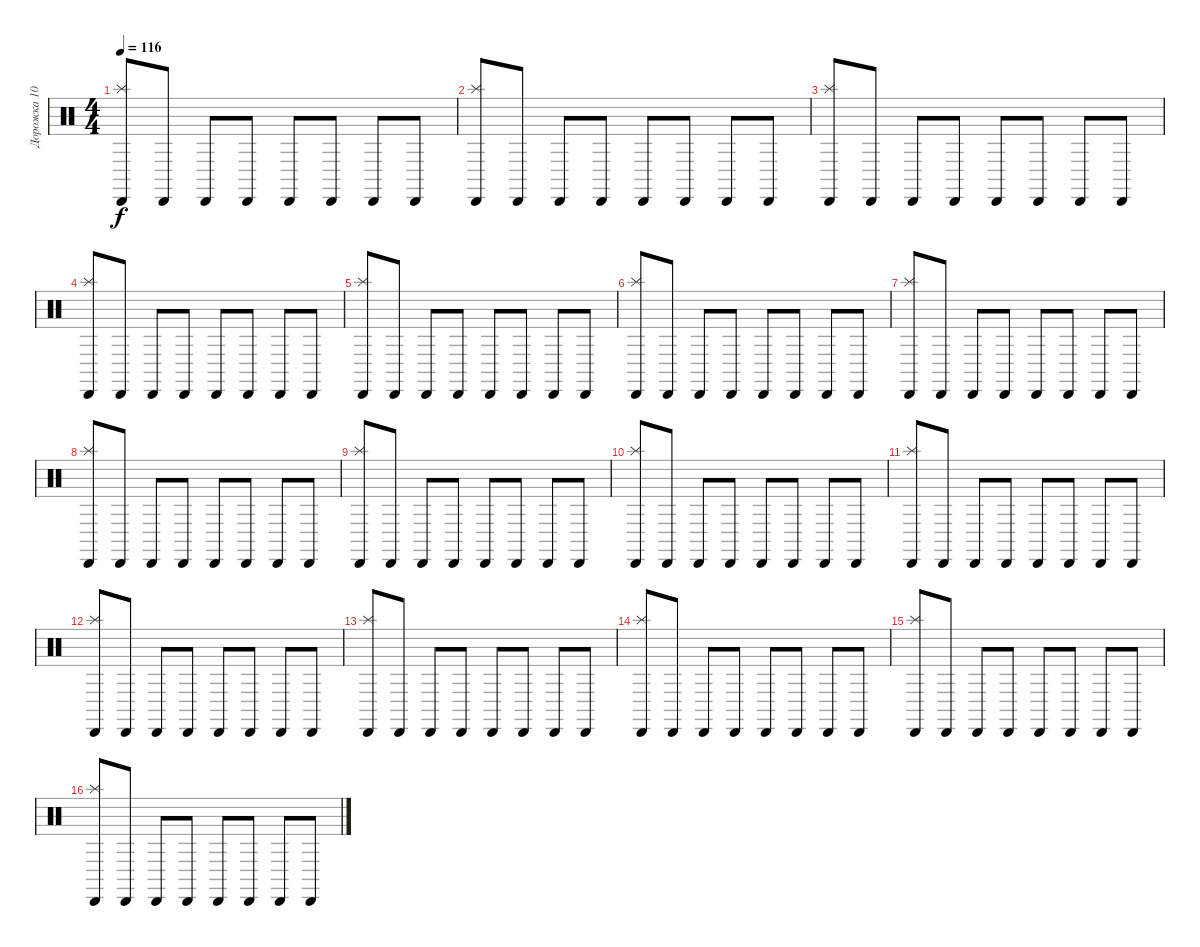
\track ("Дорожка 10" "Дорожка 10") {instrument percussion}
\staff {score}
\articulation defaults
\ts (4 4)
\tempo 116
\clef neutral
\ks c
("Splash (hit)" "Cabasa (hit)").8{dy f} "Cabasa (hit)".8 "Cabasa (hit)".8 "Cabasa (hit)".8 "Cabasa (hit)".8 "Cabasa (hit)".8 "Cabasa (hit)".8 "Cabasa (hit)".8 |
("Splash (hit)" "Cabasa (hit)").8 "Cabasa (hit)".8 "Cabasa (hit)".8 "Cabasa (hit)".8 "Cabasa (hit)".8 "Cabasa (hit)".8 "Cabasa (hit)".8 "Cabasa (hit)".8 |
("Splash (hit)" "Cabasa (hit)").8 "Cabasa (hit)".8 "Cabasa (hit)".8 "Cabasa (hit)".8 "Cabasa (hit)".8 "Cabasa (hit)".8 "Cabasa (hit)".8 "Cabasa (hit)".8 |
("Splash (hit)" "Cabasa (hit)").8 "Cabasa (hit)".8 "Cabasa (hit)".8 "Cabasa (hit)".8 "Cabasa (hit)".8 "Cabasa (hit)".8 "Cabasa (hit)".8 "Cabasa (hit)".8 |
("Splash (hit)" "Cabasa (hit)").8 "Cabasa (hit)".8 "Cabasa (hit)".8 "Cabasa (hit)".8 "Cabasa (hit)".8 "Cabasa (hit)".8 "Cabasa (hit)".8 "Cabasa (hit)".8 |
("Splash (hit)" "Cabasa (hit)").8 "Cabasa (hit)".8 "Cabasa (hit)".8 "Cabasa (hit)".8 "Cabasa (hit)".8 "Cabasa (hit)".8 "Cabasa (hit)".8 "Cabasa (hit)".8 |
("Splash (hit)" "Cabasa (hit)").8 "Cabasa (hit)".8 "Cabasa (hit)".8 "Cabasa (hit)".8 "Cabasa (hit)".8 "Cabasa (hit)".8 "Cabasa (hit)".8 "Cabasa (hit)".8 |
("Splash (hit)" "Cabasa (hit)").8 "Cabasa (hit)".8 "Cabasa (hit)".8 "Cabasa (hit)".8 "Cabasa (hit)".8 "Cabasa (hit)".8 "Cabasa (hit)".8 "Cabasa (hit)".8 |
("Splash (hit)" "Cabasa (hit)").8 "Cabasa (hit)".8 "Cabasa (hit)".8 "Cabasa (hit)".8 "Cabasa (hit)".8 "Cabasa (hit)".8 "Cabasa (hit)".8 "Cabasa (hit)".8 |
("Splash (hit)" "Cabasa (hit)").8 "Cabasa (hit)".8 "Cabasa (hit)".8 "Cabasa (hit)".8 "Cabasa (hit)".8 "Cabasa (hit)".8 "Cabasa (hit)".8 "Cabasa (hit)".8 |
("Splash (hit)" "Cabasa (hit)").8 "Cabasa (hit)".8 "Cabasa (hit)".8 "Cabasa (hit)".8 "Cabasa (hit)".8 "Cabasa (hit)".8 "Cabasa (hit)".8 "Cabasa (hit)".8 |
("Splash (hit)" "Cabasa (hit)").8 "Cabasa (hit)".8 "Cabasa (hit)".8 "Cabasa (hit)".8 "Cabasa (hit)".8 "Cabasa (hit)".8 "Cabasa (hit)".8 "Cabasa (hit)".8 |
("Splash (hit)" "Cabasa (hit)").8 "Cabasa (hit)".8 "Cabasa (hit)".8 "Cabasa (hit)".8 "Cabasa (hit)".8 "Cabasa (hit)".8 "Cabasa (hit)".8 "Cabasa (hit)".8 |
("Splash (hit)" "Cabasa (hit)").8 "Cabasa (hit)".8 "Cabasa (hit)".8 "Cabasa (hit)".8 "Cabasa (hit)".8 "Cabasa (hit)".8 "Cabasa (hit)".8 "Cabasa (hit)".8 |
("Splash (hit)" "Cabasa (hit)").8 "Cabasa (hit)".8 "Cabasa (hit)".8 "Cabasa (hit)".8 "Cabasa (hit)".8 "Cabasa (hit)".8 "Cabasa (hit)".8 "Cabasa (hit)".8 |
("Splash (hit)" "Cabasa (hit)").8 "Cabasa (hit)".8 "Cabasa (hit)".8 "Cabasa (hit)".8 "Cabasa (hit)".8 "Cabasa (hit)".8 "Cabasa (hit)".8 "Cabasa (hit)".8
